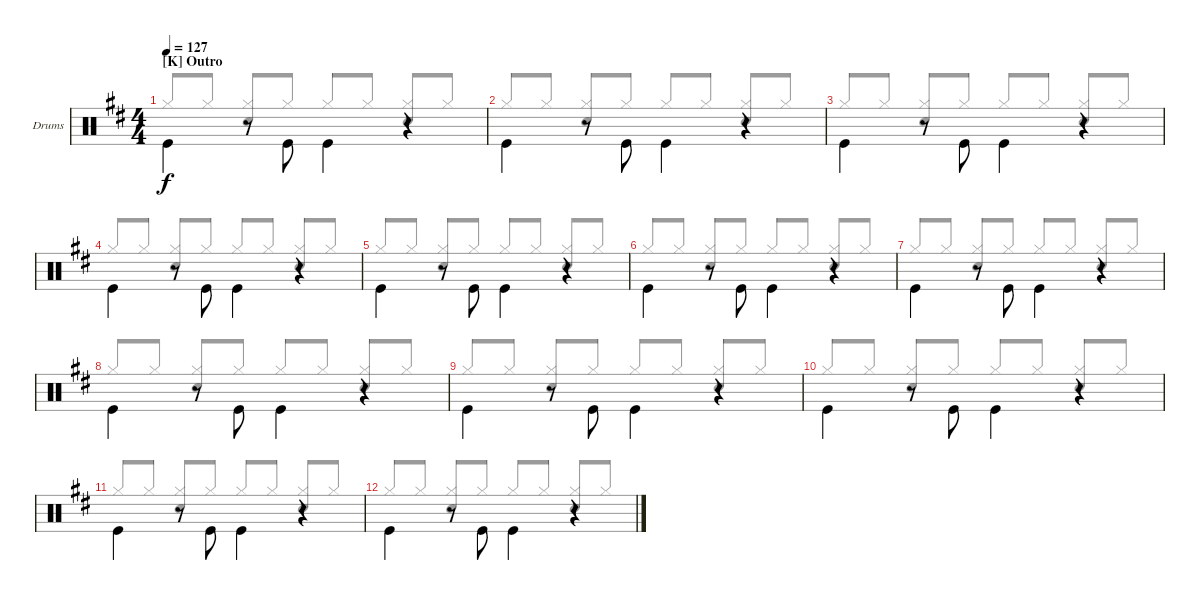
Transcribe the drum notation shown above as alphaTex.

\bracketExtendMode groupsimilarinstruments
\firstSystemTrackNameOrientation horizontal
\otherSystemsTrackNameOrientation horizontal
\track ("Drum" "Drums") {instrument percussion}
\staff {score}
\articulation defaults
\voice
\ts (4 4)
\section ("K" "Outro")
\tempo 127
\clef neutral
\scale
0.5
\ks d "Kick (hit)".4{dy f beam invert}
r.8 "Kick (hit)".8{beam invert} "Kick (hit)".4{beam invert} r.4 |
\scale
0.5 "Kick (hit)".4{beam invert} r.8 "Kick (hit)".8{beam invert} "Kick (hit)".4{beam invert} r.4 |
\scale
0.5 "Kick (hit)".4{beam invert} r.8 "Kick (hit)".8{beam invert} "Kick (hit)".4{beam invert} r.4 |
\scale
0.5 "Kick (hit)".4{beam invert} r.8 "Kick (hit)".8{beam invert} "Kick (hit)".4{beam invert} r.4 |
\scale
0.5 "Kick (hit)".4{beam invert} r.8 "Kick (hit)".8{beam invert} "Kick (hit)".4{beam invert} r.4 |
\scale
0.5 "Kick (hit)".4{beam invert} r.8 "Kick (hit)".8{beam invert} "Kick (hit)".4{beam invert} r.4 |
\scale
0.5 "Kick (hit)".4{beam invert} r.8 "Kick (hit)".8{beam invert} "Kick (hit)".4{beam invert} r.4 |
\scale
0.5 "Kick (hit)".4{beam invert} r.8 "Kick (hit)".8{beam invert} "Kick (hit)".4{beam invert} r.4 |
\scale
0.5 "Kick (hit)".4{beam invert} r.8 "Kick (hit)".8{beam invert} "Kick (hit)".4{beam invert} r.4 |
\scale
0.5 "Kick (hit)".4{beam invert} r.8 "Kick (hit)".8{beam invert} "Kick (hit)".4{beam invert} r.4 |
\scale
0.5 "Kick (hit)".4{beam invert} r.8 "Kick (hit)".8{beam invert} "Kick (hit)".4{beam invert} r.4 |
\scale
0.5 "Kick (hit)".4{beam invert} r.8 "Kick (hit)".8{beam invert} "Kick (hit)".4{beam invert} r.4
\voice
\clef neutral
\ottava regular
\simile none
\scale
0.5
\ks d "Hi-Hat (closed)".8{dy f beam invert} "Hi-Hat (closed)".8
("Hi-Hat (closed)" "Snare (hit) 2").8{beam invert} "Hi-Hat (closed)".8 "Hi-Hat (closed)".8{beam invert} "Hi-Hat (closed)".8 ("Hi-Hat (closed)" "Snare (hit) 2").8{beam invert} "Hi-Hat (closed)".8 |
\scale
0.5 "Hi-Hat (closed)".8{beam invert} "Hi-Hat (closed)".8 ("Hi-Hat (closed)" "Snare (hit) 2").8{beam invert} "Hi-Hat (closed)".8 "Hi-Hat (closed)".8{beam invert} "Hi-Hat (closed)".8 ("Hi-Hat (closed)" "Snare (hit) 2").8{beam invert} "Hi-Hat (closed)".8 |
\scale
0.5 "Hi-Hat (closed)".8{beam invert} "Hi-Hat (closed)".8 ("Hi-Hat (closed)" "Snare (hit) 2").8{beam invert} "Hi-Hat (closed)".8 "Hi-Hat (closed)".8{beam invert} "Hi-Hat (closed)".8 ("Hi-Hat (closed)" "Snare (hit) 2").8{beam invert} "Hi-Hat (closed)".8 |
\scale
0.5 "Hi-Hat (closed)".8{beam invert} "Hi-Hat (closed)".8 ("Hi-Hat (closed)" "Snare (hit) 2").8{beam invert} "Hi-Hat (closed)".8 "Hi-Hat (closed)".8{beam invert} "Hi-Hat (closed)".8 ("Hi-Hat (closed)" "Snare (hit) 2").8{beam invert} "Hi-Hat (closed)".8 |
\scale
0.5 "Hi-Hat (closed)".8{beam invert} "Hi-Hat (closed)".8 ("Hi-Hat (closed)" "Snare (hit) 2").8{beam invert} "Hi-Hat (closed)".8 "Hi-Hat (closed)".8{beam invert} "Hi-Hat (closed)".8 ("Hi-Hat (closed)" "Snare (hit) 2").8{beam invert} "Hi-Hat (closed)".8 |
\scale
0.5 "Hi-Hat (closed)".8{beam invert} "Hi-Hat (closed)".8 ("Hi-Hat (closed)" "Snare (hit) 2").8{beam invert} "Hi-Hat (closed)".8 "Hi-Hat (closed)".8{beam invert} "Hi-Hat (closed)".8 ("Hi-Hat (closed)" "Snare (hit) 2").8{beam invert} "Hi-Hat (closed)".8 |
\scale
0.5 "Hi-Hat (closed)".8{beam invert} "Hi-Hat (closed)".8 ("Hi-Hat (closed)" "Snare (hit) 2").8{beam invert} "Hi-Hat (closed)".8 "Hi-Hat (closed)".8{beam invert} "Hi-Hat (closed)".8 ("Hi-Hat (closed)" "Snare (hit) 2").8{beam invert} "Hi-Hat (closed)".8 |
\scale
0.5 "Hi-Hat (closed)".8{beam invert} "Hi-Hat (closed)".8 ("Hi-Hat (closed)" "Snare (hit) 2").8{beam invert} "Hi-Hat (closed)".8 "Hi-Hat (closed)".8{beam invert} "Hi-Hat (closed)".8 ("Hi-Hat (closed)" "Snare (hit) 2").8{beam invert} "Hi-Hat (closed)".8 |
\scale
0.5 "Hi-Hat (closed)".8{beam invert} "Hi-Hat (closed)".8 ("Hi-Hat (closed)" "Snare (hit) 2").8{beam invert} "Hi-Hat (closed)".8 "Hi-Hat (closed)".8{beam invert} "Hi-Hat (closed)".8 ("Hi-Hat (closed)" "Snare (hit) 2").8{beam invert} "Hi-Hat (closed)".8 |
\scale
0.5 "Hi-Hat (closed)".8{beam invert} "Hi-Hat (closed)".8 ("Hi-Hat (closed)" "Snare (hit) 2").8{beam invert} "Hi-Hat (closed)".8 "Hi-Hat (closed)".8{beam invert} "Hi-Hat (closed)".8 ("Hi-Hat (closed)" "Snare (hit) 2").8{beam invert} "Hi-Hat (closed)".8 |
\scale
0.5 "Hi-Hat (closed)".8{beam invert} "Hi-Hat (closed)".8 ("Hi-Hat (closed)" "Snare (hit) 2").8{beam invert} "Hi-Hat (closed)".8 "Hi-Hat (closed)".8{beam invert} "Hi-Hat (closed)".8 ("Hi-Hat (closed)" "Snare (hit) 2").8{beam invert} "Hi-Hat (closed)".8 |
\scale
0.5 "Hi-Hat (closed)".8{beam invert} "Hi-Hat (closed)".8 ("Hi-Hat (closed)" "Snare (hit) 2").8{beam invert} "Hi-Hat (closed)".8 "Hi-Hat (closed)".8{beam invert} "Hi-Hat (closed)".8 ("Hi-Hat (closed)" "Snare (hit) 2").8{beam invert} "Hi-Hat (closed)".8
